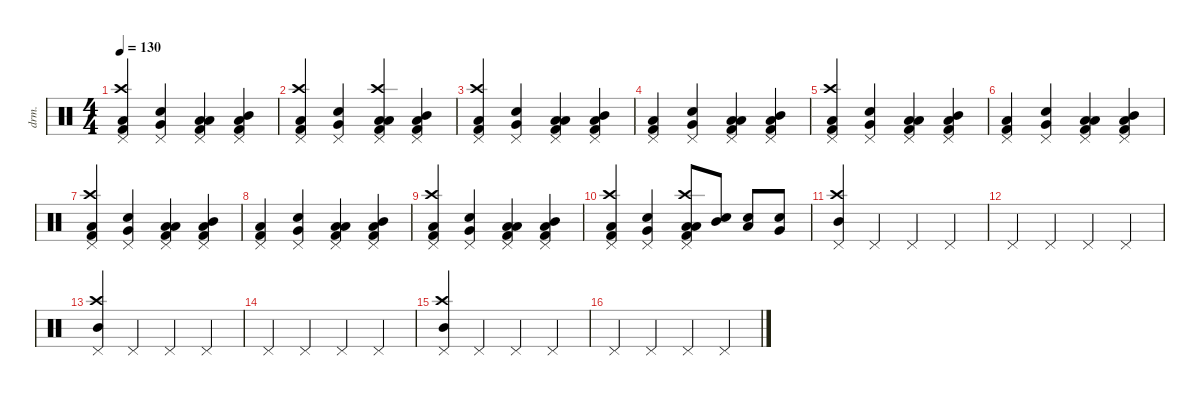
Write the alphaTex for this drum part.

\defaultSystemsLayout 4
\hideDynamics
\bracketExtendMode nobrackets
\otherSystemsTrackNameOrientation horizontal
\track ("Percussion" "drm.") {instrument percussion}
\staff {score}
\articulation defaults
\ts (4 4)
\tempo 130
\clef neutral
\ks c
("Pedal Hi-Hat (hit)" "Crash high (hit)" "Kick (hit) 2" "Low Floor Tom (hit)").4{dy f} ("Pedal Hi-Hat (hit)" "Very Low Tom (hit)" "Snare (hit) 2").4 ("Pedal Hi-Hat (hit)" "Low Floor Tom (hit)" "Kick (hit) 2" "Low Tom (hit)").4 ("Pedal Hi-Hat (hit)" "Low Tom (hit)" "Kick (hit) 2" "Mid Tom (hit)").4 |
("Pedal Hi-Hat (hit)" "Crash high (hit)" "Kick (hit) 2" "Low Floor Tom (hit)").4 ("Pedal Hi-Hat (hit)" "Very Low Tom (hit)" "Snare (hit) 2").4 ("Pedal Hi-Hat (hit)" "Crash high (hit)" "Low Floor Tom (hit)" "Kick (hit) 2" "Low Tom (hit)").4 ("Pedal Hi-Hat (hit)" "Low Tom (hit)" "Kick (hit) 2" "Mid Tom (hit)").4 |
("Pedal Hi-Hat (hit)" "Crash high (hit)" "Kick (hit) 2" "Low Floor Tom (hit)").4 ("Pedal Hi-Hat (hit)" "Very Low Tom (hit)" "Snare (hit) 2").4 ("Pedal Hi-Hat (hit)" "Low Floor Tom (hit)" "Kick (hit) 2" "Low Tom (hit)").4 ("Pedal Hi-Hat (hit)" "Low Tom (hit)" "Kick (hit) 2" "Mid Tom (hit)").4 |
("Pedal Hi-Hat (hit)" "Kick (hit) 2" "Low Floor Tom (hit)").4 ("Pedal Hi-Hat (hit)" "Very Low Tom (hit)" "Snare (hit) 2").4 ("Pedal Hi-Hat (hit)" "Low Floor Tom (hit)" "Kick (hit) 2" "Low Tom (hit)").4 ("Pedal Hi-Hat (hit)" "Low Tom (hit)" "Kick (hit) 2" "Mid Tom (hit)").4 |
("Pedal Hi-Hat (hit)" "Crash high (hit)" "Kick (hit) 2" "Low Floor Tom (hit)").4 ("Pedal Hi-Hat (hit)" "Very Low Tom (hit)" "Snare (hit) 2").4 ("Pedal Hi-Hat (hit)" "Low Floor Tom (hit)" "Kick (hit) 2" "Low Tom (hit)").4 ("Pedal Hi-Hat (hit)" "Low Tom (hit)" "Kick (hit) 2" "Mid Tom (hit)").4 |
("Pedal Hi-Hat (hit)" "Kick (hit) 2" "Low Floor Tom (hit)").4 ("Pedal Hi-Hat (hit)" "Very Low Tom (hit)" "Snare (hit) 2").4 ("Pedal Hi-Hat (hit)" "Low Floor Tom (hit)" "Kick (hit) 2" "Low Tom (hit)").4 ("Pedal Hi-Hat (hit)" "Low Tom (hit)" "Kick (hit) 2" "Mid Tom (hit)").4 |
("Pedal Hi-Hat (hit)" "Crash high (hit)" "Kick (hit) 2" "Low Floor Tom (hit)").4 ("Pedal Hi-Hat (hit)" "Very Low Tom (hit)" "Snare (hit) 2").4 ("Pedal Hi-Hat (hit)" "Low Floor Tom (hit)" "Kick (hit) 2" "Low Tom (hit)").4 ("Pedal Hi-Hat (hit)" "Low Tom (hit)" "Kick (hit) 2" "Mid Tom (hit)").4 |
("Pedal Hi-Hat (hit)" "Kick (hit) 2" "Low Floor Tom (hit)").4 ("Pedal Hi-Hat (hit)" "Very Low Tom (hit)" "Snare (hit) 2").4 ("Pedal Hi-Hat (hit)" "Low Floor Tom (hit)" "Kick (hit) 2" "Low Tom (hit)").4 ("Pedal Hi-Hat (hit)" "Low Tom (hit)" "Kick (hit) 2" "Mid Tom (hit)").4 |
("Pedal Hi-Hat (hit)" "Crash high (hit)" "Kick (hit) 2" "Low Floor Tom (hit)").4 ("Pedal Hi-Hat (hit)" "Very Low Tom (hit)" "Snare (hit) 2").4 ("Pedal Hi-Hat (hit)" "Low Floor Tom (hit)" "Kick (hit) 2" "Low Tom (hit)").4 ("Pedal Hi-Hat (hit)" "Low Tom (hit)" "Kick (hit) 2" "Mid Tom (hit)").4 |
("Pedal Hi-Hat (hit)" "Crash high (hit)" "Kick (hit) 2" "Low Floor Tom (hit)").4 ("Pedal Hi-Hat (hit)" "Very Low Tom (hit)" "Snare (hit) 2").4 ("Pedal Hi-Hat (hit)" "Crash high (hit)" "Low Floor Tom (hit)" "Kick (hit) 2" "Low Tom (hit)").8 ("Snare (hit) 2" "Mid Tom (hit)").8 ("Snare (hit) 2" "Low Tom (hit)").8 ("Snare (hit) 2" "Very Low Tom (hit)").8 |
("Pedal Hi-Hat (hit)" "Crash high (hit)" "Mid Tom (hit)").4 "Pedal Hi-Hat (hit)".4 "Pedal Hi-Hat (hit)".4 "Pedal Hi-Hat (hit)".4 |
"Pedal Hi-Hat (hit)".4 "Pedal Hi-Hat (hit)".4 "Pedal Hi-Hat (hit)".4 "Pedal Hi-Hat (hit)".4 |
("Pedal Hi-Hat (hit)" "Crash high (hit)" "Mid Tom (hit)").4 "Pedal Hi-Hat (hit)".4 "Pedal Hi-Hat (hit)".4 "Pedal Hi-Hat (hit)".4 |
"Pedal Hi-Hat (hit)".4 "Pedal Hi-Hat (hit)".4 "Pedal Hi-Hat (hit)".4 "Pedal Hi-Hat (hit)".4 |
("Pedal Hi-Hat (hit)" "Crash high (hit)" "Mid Tom (hit)").4 "Pedal Hi-Hat (hit)".4 "Pedal Hi-Hat (hit)".4 "Pedal Hi-Hat (hit)".4 |
"Pedal Hi-Hat (hit)".4 "Pedal Hi-Hat (hit)".4 "Pedal Hi-Hat (hit)".4 "Pedal Hi-Hat (hit)".4
